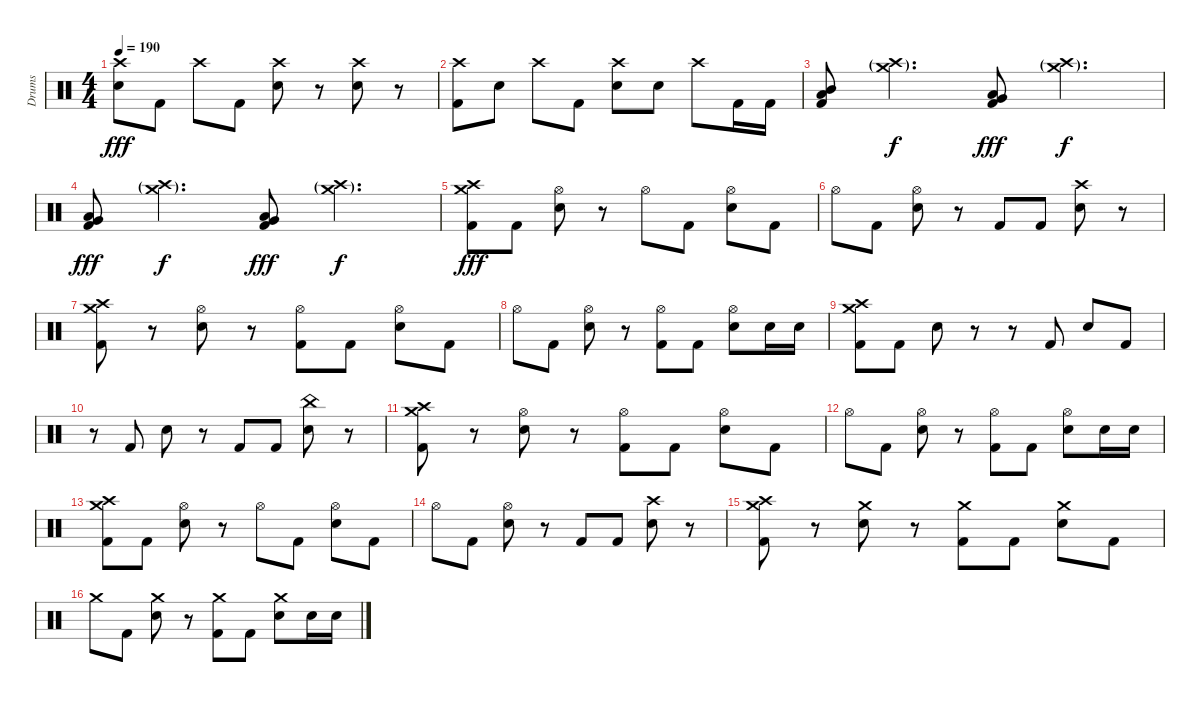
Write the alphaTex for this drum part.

\track ("Drums" "Drums") {instrument percussion}
\staff {score}
\articulation defaults
\ts (4 4)
\tempo 190
\clef neutral
\ks c
("Crash high (hit)" "Electric Snare (hit)").8{dy fff} "Kick (hit) 2".8 "Crash high (hit)".8 "Kick (hit) 2".8 ("Crash high (hit)" "Electric Snare (hit)").8 r.8 ("Crash high (hit)" "Electric Snare (hit)").8 r.8 |
("Crash high (hit)" "Kick (hit) 2").8 "Electric Snare (hit)".8 "Crash high (hit)".8 "Kick (hit) 2".8 ("Crash high (hit)" "Electric Snare (hit)").8 "Electric Snare (hit)".8 "Crash high (hit)".8 "Kick (hit) 2".16 "Kick (hit) 2".16 |
("Mid Tom (hit)" "Low Tom (hit)" "Kick (hit) 2").8 ("Crash medium (hit)"{g} "Crash high (hit)"{g}).4{d dy f} ("Low Tom (hit)" "Very Low Tom (hit)" "Kick (hit) 2").8{dy fff} ("Crash medium (hit)"{g} "Crash high (hit)"{g}).4{d dy f} |
("Very Low Tom (hit)" "Low Floor Tom (hit)" "Kick (hit) 2").8{dy fff} ("Crash medium (hit)"{g} "Crash high (hit)"{g}).4{d dy f} ("Low Tom (hit)" "Very Low Tom (hit)" "Kick (hit) 2").8{dy fff} ("Crash medium (hit)"{g} "Crash high (hit)"{g}).4{d dy f} |
("Crash medium (hit)" "Crash high (hit)" "Kick (hit) 2").8{dy fff} "Kick (hit) 2".8 ("Hi-Hat (open)" "Electric Snare (hit)").8 r.8 "Hi-Hat (open)".8 "Kick (hit) 2".8 ("Hi-Hat (open)" "Electric Snare (hit)").8 "Kick (hit) 2".8 |
"Hi-Hat (open)".8 "Kick (hit) 2".8 ("Hi-Hat (open)" "Electric Snare (hit)").8 r.8 "Kick (hit) 2".8 "Kick (hit) 2".8 ("Crash high (hit)" "Electric Snare (hit)").8 r.8 |
("Crash medium (hit)" "Crash high (hit)" "Kick (hit) 2").8 r.8 ("Hi-Hat (open)" "Electric Snare (hit)").8 r.8 ("Hi-Hat (open)" "Kick (hit) 2").8 "Kick (hit) 2".8 ("Hi-Hat (open)" "Electric Snare (hit)").8 "Kick (hit) 2".8 |
"Hi-Hat (open)".8 "Kick (hit) 2".8 ("Hi-Hat (open)" "Electric Snare (hit)").8 r.8 ("Hi-Hat (open)" "Kick (hit) 2").8 "Kick (hit) 2".8 ("Hi-Hat (open)" "Electric Snare (hit)").8 "Electric Snare (hit)".16 "Electric Snare (hit)".16 |
("Crash medium (hit)" "Crash high (hit)" "Kick (hit) 2").8 "Kick (hit) 2".8 "Electric Snare (hit)".8 r.8 r.8 "Kick (hit) 2".8 "Electric Snare (hit)".8 "Kick (hit) 2".8 |
r.8 "Kick (hit) 2".8 "Electric Snare (hit)".8 r.8 "Kick (hit) 2".8 "Kick (hit) 2".8 ("China (hit)" "Electric Snare (hit)").8 r.8 |
("Crash medium (hit)" "Crash high (hit)" "Kick (hit) 2").8 r.8 ("Hi-Hat (open)" "Electric Snare (hit)").8 r.8 ("Hi-Hat (open)" "Kick (hit) 2").8 "Kick (hit) 2".8 ("Hi-Hat (open)" "Electric Snare (hit)").8 "Kick (hit) 2".8 |
"Hi-Hat (open)".8 "Kick (hit) 2".8 ("Hi-Hat (open)" "Electric Snare (hit)").8 r.8 ("Hi-Hat (open)" "Kick (hit) 2").8 "Kick (hit) 2".8 ("Hi-Hat (open)" "Electric Snare (hit)").8 "Electric Snare (hit)".16 "Electric Snare (hit)".16 |
("Crash medium (hit)" "Crash high (hit)" "Kick (hit) 2").8 "Kick (hit) 2".8 ("Hi-Hat (open)" "Electric Snare (hit)").8 r.8 "Hi-Hat (open)".8 "Kick (hit) 2".8 ("Hi-Hat (open)" "Electric Snare (hit)").8 "Kick (hit) 2".8 |
"Hi-Hat (open)".8 "Kick (hit) 2".8 ("Hi-Hat (open)" "Electric Snare (hit)").8 r.8 "Kick (hit) 2".8 "Kick (hit) 2".8 ("Crash high (hit)" "Electric Snare (hit)").8 r.8 |
("Crash medium (hit)" "Crash high (hit)" "Kick (hit) 2").8 r.8 ("Crash medium (hit)" "Electric Snare (hit)").8 r.8 ("Crash medium (hit)" "Kick (hit) 2").8 "Kick (hit) 2".8 ("Crash medium (hit)" "Electric Snare (hit)").8 "Kick (hit) 2".8 |
"Crash medium (hit)".8 "Kick (hit) 2".8 ("Crash medium (hit)" "Electric Snare (hit)").8 r.8 ("Crash medium (hit)" "Kick (hit) 2").8 "Kick (hit) 2".8 ("Crash medium (hit)" "Electric Snare (hit)").8 "Electric Snare (hit)".16 "Electric Snare (hit)".16
